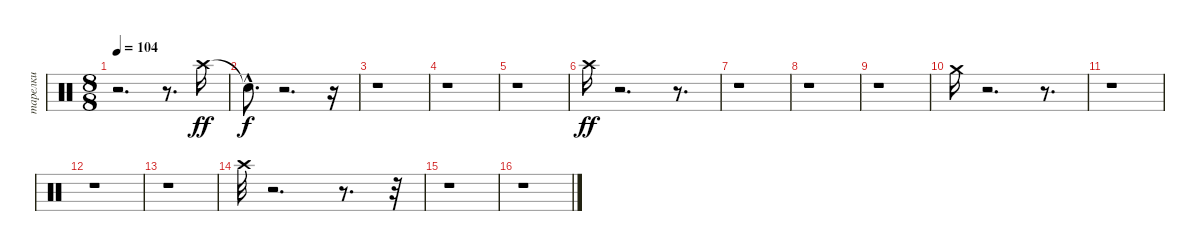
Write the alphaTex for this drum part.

\track ("тарелки" "тарелки") {instrument percussion}
\staff {score}
\articulation defaults
\ts (8 8)
\tempo 104
\clef neutral
\ks c
r.2{d dy f} r.8{d} "Crash high (hit)".16{dy ff} |
"Snare (hit)"{hac t}.8{d dy f} r.2{d} r.16 |
r.1 |
r.1 |
r.1 |
"Crash high (hit)".16{dy ff} r.2{d} r.8{d} |
r.1 |
r.1 |
r.1 |
"Crash medium (hit)".16 r.2{d} r.8{d} |
r.1 |
r.1 |
r.1 |
"Crash high (hit)".32 r.2{d} r.8{d} r.32 |
r.1 |
r.1
